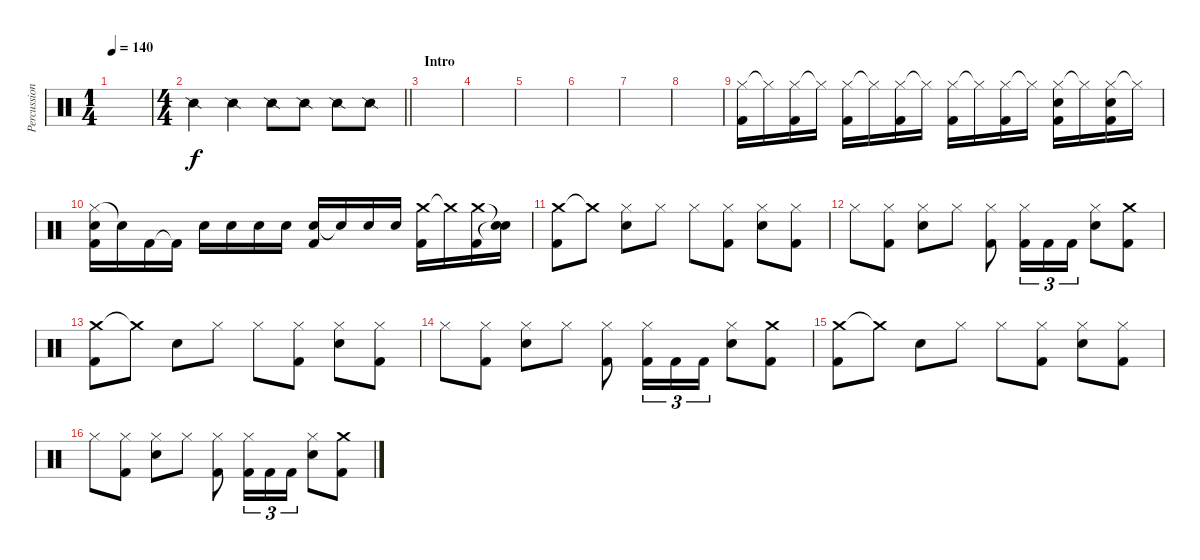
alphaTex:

\track ("Percussion" "Percussion") {instrument percussion}
\staff {score}
\articulation defaults
\ts (1 4)
\tempo 140
\clef neutral
\ks c
|
\ts (4 4)
\barLineRight lightlight "Snare (side stick) 2".4 "Snare (side stick) 2".4 "Snare (side stick) 2".8 "Snare (side stick) 2".8 "Snare (side stick) 2".8 "Snare (side stick) 2".8
|
\section ("" "Intro")
|
|
|
|
|
|
("Hi-Hat (closed)" "Kick (hit) 2").16 "Hi-Hat (closed)"{t}.16 ("Hi-Hat (closed)" "Kick (hit) 2").16 "Hi-Hat (closed)"{t}.16 ("Hi-Hat (closed)" "Kick (hit) 2").16 "Hi-Hat (closed)"{t}.16 ("Hi-Hat (closed)" "Kick (hit) 2").16 "Hi-Hat (closed)"{t}.16 ("Hi-Hat (closed)" "Kick (hit) 2").16 "Hi-Hat (closed)"{t}.16 ("Hi-Hat (closed)" "Kick (hit) 2").16 "Hi-Hat (closed)"{t}.16 ("Hi-Hat (closed)" "Snare (hit) 2" "Kick (hit) 2").16 "Hi-Hat (closed)"{t}.16 ("Hi-Hat (closed)" "Snare (hit) 2" "Kick (hit) 2").16 "Hi-Hat (closed)"{t}.16 |
("Hi-Hat (closed)" "Snare (hit) 2" "Kick (hit) 2").16 "Snare (hit) 2"{t}.16 "Kick (hit) 2".16 "Kick (hit) 2"{t}.16 "Snare (hit) 2".16 "Snare (hit) 2".16 "Snare (hit) 2".16 "Snare (hit) 2".16 ("Snare (hit) 2" "Kick (hit) 2").16 "Snare (hit) 2"{t}.16 "Snare (hit) 2".16 "Snare (hit) 2".16 ("Crash medium (hit)" "Kick (hit) 2").16 "Crash medium (hit)"{t}.16 ("Crash medium (hit)" "Kick (hit) 2").16 ("Snare (hit)"{t} "Snare (hit)"{t}).16 |
("Crash medium (hit)" "Kick (hit) 2").8 "Crash medium (hit)"{t}.8 ("Hi-Hat (closed)" "Snare (hit) 2").8 "Hi-Hat (closed)".8 "Hi-Hat (closed)".8 ("Hi-Hat (closed)" "Kick (hit) 2").8 ("Hi-Hat (closed)" "Snare (hit) 2").8 ("Hi-Hat (closed)" "Kick (hit) 2").8 |
"Hi-Hat (closed)".8 ("Hi-Hat (closed)" "Kick (hit) 2").8 ("Hi-Hat (closed)" "Snare (hit) 2").8 "Hi-Hat (closed)".8 ("Hi-Hat (closed)" "Kick (hit) 2").8 ("Hi-Hat (closed)" "Kick (hit) 2").16{tu (3 2)} "Kick (hit) 2".16{tu (3 2)} "Kick (hit) 2".16{tu (3 2)} ("Hi-Hat (closed)" "Snare (hit) 2").8 ("Crash medium (hit)" "Kick (hit) 2").8 |
("Crash medium (hit)" "Kick (hit) 2").8 "Crash medium (hit)"{t}.8 "Snare (hit) 2".8 "Hi-Hat (closed)".8 "Hi-Hat (closed)".8 ("Hi-Hat (closed)" "Kick (hit) 2").8 ("Hi-Hat (closed)" "Snare (hit) 2").8 ("Hi-Hat (closed)" "Kick (hit) 2").8 |
"Hi-Hat (closed)".8 ("Hi-Hat (closed)" "Kick (hit) 2").8 ("Hi-Hat (closed)" "Snare (hit) 2").8 "Hi-Hat (closed)".8 ("Hi-Hat (closed)" "Kick (hit) 2").8 ("Hi-Hat (closed)" "Kick (hit) 2").16{tu (3 2)} "Kick (hit) 2".16{tu (3 2)} "Kick (hit) 2".16{tu (3 2)} ("Hi-Hat (closed)" "Snare (hit) 2").8 ("Crash medium (hit)" "Kick (hit) 2").8 |
("Crash medium (hit)" "Kick (hit) 2").8 "Crash medium (hit)"{t}.8 "Snare (hit) 2".8 "Hi-Hat (closed)".8 "Hi-Hat (closed)".8 ("Hi-Hat (closed)" "Kick (hit) 2").8 ("Hi-Hat (closed)" "Snare (hit) 2").8 ("Hi-Hat (closed)" "Kick (hit) 2").8 |
"Hi-Hat (closed)".8 ("Hi-Hat (closed)" "Kick (hit) 2").8 ("Hi-Hat (closed)" "Snare (hit) 2").8 "Hi-Hat (closed)".8 ("Hi-Hat (closed)" "Kick (hit) 2").8 ("Hi-Hat (closed)" "Kick (hit) 2").16{tu (3 2)} "Kick (hit) 2".16{tu (3 2)} "Kick (hit) 2".16{tu (3 2)} ("Hi-Hat (closed)" "Snare (hit) 2").8 ("Crash medium (hit)" "Kick (hit) 2").8
